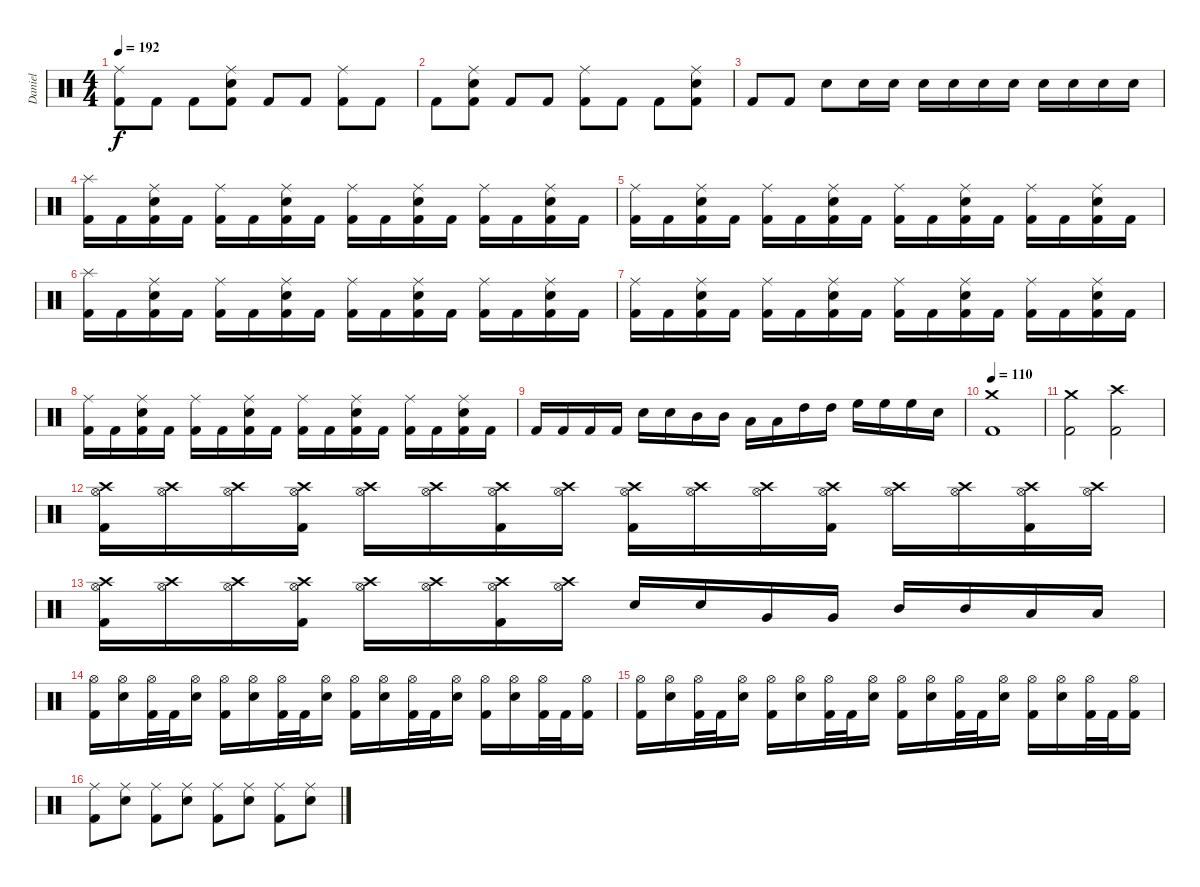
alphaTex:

\track ("Daniel" "Daniel") {instrument percussion}
\staff {score}
\articulation defaults
\ts (4 4)
\tempo 192
\clef neutral
\ks c
("Ride (middle)" "Kick (hit) 2").8{dy f} "Kick (hit) 2".8 "Kick (hit) 2".8 ("Ride (middle)" "Electric Snare (hit)" "Kick (hit) 2").8 "Kick (hit) 2".8 "Kick (hit) 2".8 ("Ride (middle)" "Kick (hit) 2").8 "Kick (hit) 2".8 |
"Kick (hit) 2".8 ("Ride (middle)" "Electric Snare (hit)" "Kick (hit) 2").8 "Kick (hit) 2".8 "Kick (hit) 2".8 ("Ride (middle)" "Kick (hit) 2").8 "Kick (hit) 2".8 "Kick (hit) 2".8 ("Ride (middle)" "Electric Snare (hit)" "Kick (hit) 2").8 |
"Kick (hit) 2".8 "Kick (hit) 2".8 "Electric Snare (hit)".8 "Electric Snare (hit)".16 "Electric Snare (hit)".16 "Electric Snare (hit)".16 "Electric Snare (hit)".16 "Electric Snare (hit)".16 "Electric Snare (hit)".16 "Electric Snare (hit)".16 "Electric Snare (hit)".16 "Electric Snare (hit)".16 "Electric Snare (hit)".16 |
("Kick (hit) 2" "Splash (hit)").16 "Kick (hit) 2".16 ("Kick (hit) 2" "Snare (hit) 2" "Ride (middle)").16 "Kick (hit) 2".16 ("Kick (hit) 2" "Ride (middle)").16 "Kick (hit) 2".16 ("Kick (hit) 2" "Snare (hit) 2" "Ride (middle)").16 "Kick (hit) 2".16 ("Kick (hit) 2" "Ride (middle)").16 "Kick (hit) 2".16 ("Kick (hit) 2" "Snare (hit) 2" "Ride (middle)").16 "Kick (hit) 2".16 ("Kick (hit) 2" "Ride (middle)").16 "Kick (hit) 2".16 ("Kick (hit) 2" "Snare (hit) 2" "Ride (middle)").16 "Kick (hit) 2".16 |
("Kick (hit) 2" "Ride (middle)").16 "Kick (hit) 2".16 ("Kick (hit) 2" "Snare (hit) 2" "Ride (middle)").16 "Kick (hit) 2".16 ("Kick (hit) 2" "Ride (middle)").16 "Kick (hit) 2".16 ("Kick (hit) 2" "Snare (hit) 2" "Ride (middle)").16 "Kick (hit) 2".16 ("Kick (hit) 2" "Ride (middle)").16 "Kick (hit) 2".16 ("Kick (hit) 2" "Snare (hit) 2" "Ride (middle)").16 "Kick (hit) 2".16 ("Kick (hit) 2" "Ride (middle)").16 "Kick (hit) 2".16 ("Kick (hit) 2" "Snare (hit) 2" "Ride (middle)").16 "Kick (hit) 2".16 |
("Kick (hit) 2" "Splash (hit)").16 "Kick (hit) 2".16 ("Kick (hit) 2" "Snare (hit) 2" "Ride (middle)").16 "Kick (hit) 2".16 ("Kick (hit) 2" "Ride (middle)").16 "Kick (hit) 2".16 ("Kick (hit) 2" "Snare (hit) 2" "Ride (middle)").16 "Kick (hit) 2".16 ("Kick (hit) 2" "Ride (middle)").16 "Kick (hit) 2".16 ("Kick (hit) 2" "Snare (hit) 2" "Ride (middle)").16 "Kick (hit) 2".16 ("Kick (hit) 2" "Ride (middle)").16 "Kick (hit) 2".16 ("Kick (hit) 2" "Snare (hit) 2" "Ride (middle)").16 "Kick (hit) 2".16 |
("Kick (hit) 2" "Ride (middle)").16 "Kick (hit) 2".16 ("Kick (hit) 2" "Snare (hit) 2" "Ride (middle)").16 "Kick (hit) 2".16 ("Kick (hit) 2" "Ride (middle)").16 "Kick (hit) 2".16 ("Kick (hit) 2" "Snare (hit) 2" "Ride (middle)").16 "Kick (hit) 2".16 ("Kick (hit) 2" "Ride (middle)").16 "Kick (hit) 2".16 ("Kick (hit) 2" "Snare (hit) 2" "Ride (middle)").16 "Kick (hit) 2".16 ("Kick (hit) 2" "Ride (middle)").16 "Kick (hit) 2".16 ("Kick (hit) 2" "Snare (hit) 2" "Ride (middle)").16 "Kick (hit) 2".16 |
("Kick (hit) 2" "Ride (middle)").16 "Kick (hit) 2".16 ("Kick (hit) 2" "Snare (hit) 2" "Ride (middle)").16 "Kick (hit) 2".16 ("Kick (hit) 2" "Ride (middle)").16 "Kick (hit) 2".16 ("Kick (hit) 2" "Snare (hit) 2" "Ride (middle)").16 "Kick (hit) 2".16 ("Kick (hit) 2" "Ride (middle)").16 "Kick (hit) 2".16 ("Kick (hit) 2" "Snare (hit) 2" "Ride (middle)").16 "Kick (hit) 2".16 ("Kick (hit) 2" "Ride (middle)").16 "Kick (hit) 2".16 ("Kick (hit) 2" "Snare (hit) 2" "Ride (middle)").16 "Kick (hit) 2".16 |
"Kick (hit) 2".16 "Kick (hit) 2".16 "Kick (hit) 2".16 "Kick (hit) 2".16 "Electric Snare (hit)".16 "Electric Snare (hit)".16 "Mid Tom (hit)".16 "Mid Tom (hit)".16 "Low Tom (hit)".16 "Low Tom (hit)".16 "High Tom (hit)".16 "High Tom (hit)".16 "High Floor Tom (hit)".16 "High Floor Tom (hit)".16 "High Floor Tom (hit)".16 "Electric Snare (hit)".16 |
\tempo 110
("Crash medium (hit)" "Kick (hit) 2").1 |
("Crash medium (hit)" "Kick (hit) 2").2 ("Crash high (hit)" "Kick (hit) 2").2 |
("Crash high (hit)" "Hi-Hat (open)" "Kick (hit) 2").16 ("Crash high (hit)" "Hi-Hat (open)").16 ("Crash high (hit)" "Hi-Hat (open)").16 ("Crash high (hit)" "Hi-Hat (open)" "Kick (hit) 2").16 ("Crash high (hit)" "Hi-Hat (open)").16 ("Crash high (hit)" "Hi-Hat (open)").16 ("Crash high (hit)" "Hi-Hat (open)" "Kick (hit) 2").16 ("Crash high (hit)" "Hi-Hat (open)").16 ("Crash high (hit)" "Hi-Hat (open)" "Kick (hit) 2").16 ("Crash high (hit)" "Hi-Hat (open)").16 ("Crash high (hit)" "Hi-Hat (open)").16 ("Crash high (hit)" "Hi-Hat (open)" "Kick (hit) 2").16 ("Crash high (hit)" "Hi-Hat (open)").16 ("Crash high (hit)" "Hi-Hat (open)").16 ("Crash high (hit)" "Hi-Hat (open)" "Kick (hit) 2").16 ("Crash high (hit)" "Hi-Hat (open)").16 |
("Crash high (hit)" "Hi-Hat (open)" "Kick (hit) 2").16 ("Crash high (hit)" "Hi-Hat (open)").16 ("Crash high (hit)" "Hi-Hat (open)").16 ("Crash high (hit)" "Hi-Hat (open)" "Kick (hit) 2").16 ("Crash high (hit)" "Hi-Hat (open)").16 ("Crash high (hit)" "Hi-Hat (open)").16 ("Crash high (hit)" "Hi-Hat (open)" "Kick (hit) 2").16 ("Crash high (hit)" "Hi-Hat (open)").16 "Electric Snare (hit)".16 "Electric Snare (hit)".16 "Very Low Tom (hit)".16 "Very Low Tom (hit)".16 "Mid Tom (hit)".16 "Mid Tom (hit)".16 "Low Tom (hit)".16 "Low Tom (hit)".16 |
("Hi-Hat (open)" "Kick (hit) 2").16 ("Hi-Hat (open)" "Snare (hit) 2").16 ("Hi-Hat (open)" "Kick (hit) 2").32 "Kick (hit) 2".32 ("Hi-Hat (open)" "Snare (hit) 2").16 ("Hi-Hat (open)" "Kick (hit) 2").16 ("Hi-Hat (open)" "Snare (hit) 2").16 ("Hi-Hat (open)" "Kick (hit) 2").32 "Kick (hit) 2".32 ("Hi-Hat (open)" "Snare (hit) 2").16 ("Hi-Hat (open)" "Kick (hit) 2").16 ("Hi-Hat (open)" "Snare (hit) 2").16 ("Hi-Hat (open)" "Kick (hit) 2").32 "Kick (hit) 2".32 ("Hi-Hat (open)" "Snare (hit) 2").16 ("Hi-Hat (open)" "Kick (hit) 2").16 ("Hi-Hat (open)" "Snare (hit) 2").16 ("Hi-Hat (open)" "Kick (hit) 2").32 "Kick (hit) 2".32 ("Hi-Hat (open)" "Kick (hit) 2").16 |
("Hi-Hat (open)" "Kick (hit) 2").16 ("Hi-Hat (open)" "Snare (hit) 2").16 ("Hi-Hat (open)" "Kick (hit) 2").32 "Kick (hit) 2".32 ("Hi-Hat (open)" "Snare (hit) 2").16 ("Hi-Hat (open)" "Kick (hit) 2").16 ("Hi-Hat (open)" "Snare (hit) 2").16 ("Hi-Hat (open)" "Kick (hit) 2").32 "Kick (hit) 2".32 ("Hi-Hat (open)" "Snare (hit) 2").16 ("Hi-Hat (open)" "Kick (hit) 2").16 ("Hi-Hat (open)" "Snare (hit) 2").16 ("Hi-Hat (open)" "Kick (hit) 2").32 "Kick (hit) 2".32 ("Hi-Hat (open)" "Snare (hit) 2").16 ("Hi-Hat (open)" "Kick (hit) 2").16 ("Hi-Hat (open)" "Snare (hit) 2").16 ("Hi-Hat (open)" "Kick (hit) 2").32 "Kick (hit) 2".32 ("Hi-Hat (open)" "Kick (hit) 2").16 |
("Ride (middle)" "Kick (hit) 2").8 ("Ride (middle)" "Electric Snare (hit)").8 ("Ride (middle)" "Kick (hit) 2").8 ("Ride (middle)" "Electric Snare (hit)").8 ("Ride (middle)" "Kick (hit) 2").8 ("Ride (middle)" "Electric Snare (hit)").8 ("Ride (middle)" "Kick (hit) 2").8 ("Ride (middle)" "Electric Snare (hit)").8
